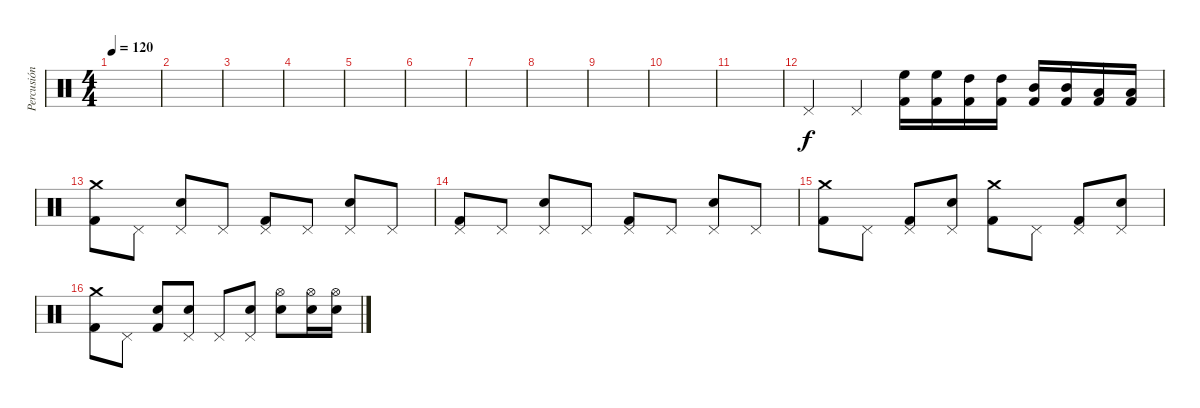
\track ("Percusión" "Percusión") {instrument percussion}
\staff {score}
\articulation defaults
\ts (4 4)
\tempo 120
\clef neutral
\ks c
|
|
|
|
|
|
|
|
|
|
|
"Pedal Hi-Hat (hit)".4 "Pedal Hi-Hat (hit)".4 ("High Floor Tom (hit)" "Kick (hit) 2").16 ("High Floor Tom (hit)" "Kick (hit) 2").16 ("High Tom (hit)" "Kick (hit) 2").16 ("High Tom (hit)" "Kick (hit) 2").16 ("Mid Tom (hit)" "Kick (hit) 2").16 ("Mid Tom (hit)" "Kick (hit) 2").16 ("Low Tom (hit)" "Kick (hit) 2").16 ("Low Tom (hit)" "Kick (hit) 2").16 |
("Crash medium (hit)" "Kick (hit) 2").8 "Pedal Hi-Hat (hit)".8 ("Pedal Hi-Hat (hit)" "Electric Snare (hit)").8 "Pedal Hi-Hat (hit)".8 ("Pedal Hi-Hat (hit)" "Kick (hit) 2").8 "Pedal Hi-Hat (hit)".8 ("Pedal Hi-Hat (hit)" "Electric Snare (hit)").8 "Pedal Hi-Hat (hit)".8 |
("Pedal Hi-Hat (hit)" "Kick (hit) 2").8 "Pedal Hi-Hat (hit)".8 ("Pedal Hi-Hat (hit)" "Electric Snare (hit)").8 "Pedal Hi-Hat (hit)".8 ("Pedal Hi-Hat (hit)" "Kick (hit) 2").8 "Pedal Hi-Hat (hit)".8 ("Pedal Hi-Hat (hit)" "Electric Snare (hit)").8 "Pedal Hi-Hat (hit)".8 |
("Crash medium (hit)" "Kick (hit) 2").8 "Pedal Hi-Hat (hit)".8 ("Pedal Hi-Hat (hit)" "Kick (hit) 2").8 ("Pedal Hi-Hat (hit)" "Electric Snare (hit)").8 ("Crash medium (hit)" "Kick (hit) 2").8 "Pedal Hi-Hat (hit)".8 ("Pedal Hi-Hat (hit)" "Kick (hit) 2").8 ("Pedal Hi-Hat (hit)" "Electric Snare (hit)").8 |
("Crash medium (hit)" "Kick (hit) 2").8 "Pedal Hi-Hat (hit)".8 ("Electric Snare (hit)" "Kick (hit) 2").8 ("Pedal Hi-Hat (hit)" "Electric Snare (hit)").8 "Pedal Hi-Hat (hit)".8 ("Pedal Hi-Hat (hit)" "Electric Snare (hit)").8 ("Hi-Hat (open)" "Electric Snare (hit)").8 ("Hi-Hat (open)" "Electric Snare (hit)").16 ("Hi-Hat (open)" "Electric Snare (hit)").16
